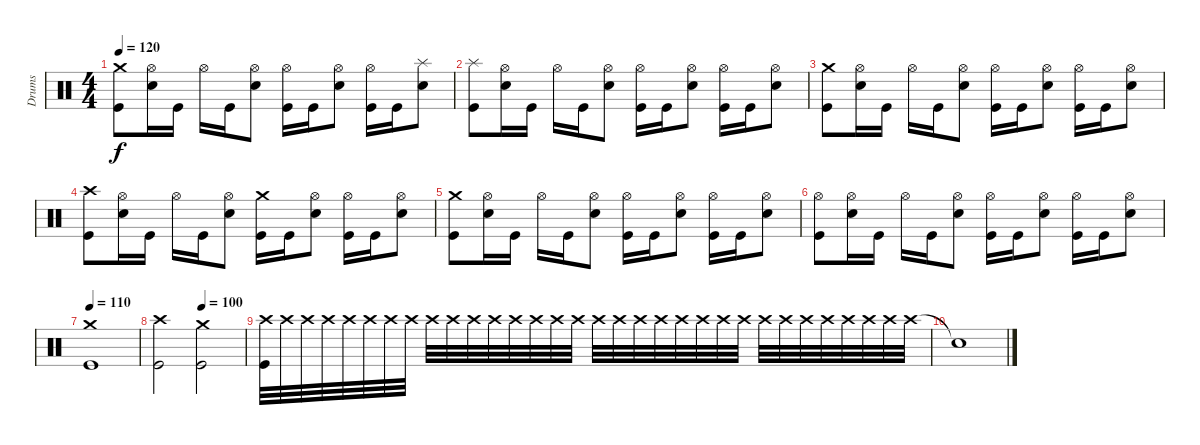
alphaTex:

\track ("Drums" "Drums") {instrument percussion}
\staff {score}
\articulation defaults
\ts (4 4)
\tempo 120
\clef neutral
\ks c
("Crash medium (hit)" "Kick (hit)").8{dy f} ("Hi-Hat (open)" "Snare (hit) 2").16 "Kick (hit)".16 "Hi-Hat (open)".16 "Kick (hit)".16 ("Hi-Hat (open)" "Snare (hit) 2").8 ("Hi-Hat (open)" "Kick (hit)").16 "Kick (hit)".16 ("Hi-Hat (open)" "Snare (hit) 2").8 ("Hi-Hat (open)" "Kick (hit)").16 "Kick (hit)".16 ("Splash (hit)" "Snare (hit) 2").8 |
("Splash (hit)" "Kick (hit)").8 ("Hi-Hat (open)" "Snare (hit) 2").16 "Kick (hit)".16 "Hi-Hat (open)".16 "Kick (hit)".16 ("Hi-Hat (open)" "Snare (hit) 2").8 ("Hi-Hat (open)" "Kick (hit)").16 "Kick (hit)".16 ("Hi-Hat (open)" "Snare (hit) 2").8 ("Hi-Hat (open)" "Kick (hit)").16 "Kick (hit)".16 ("Hi-Hat (open)" "Snare (hit) 2").8 |
("Crash medium (hit)" "Kick (hit)").8 ("Hi-Hat (open)" "Snare (hit) 2").16 "Kick (hit)".16 "Hi-Hat (open)".16 "Kick (hit)".16 ("Hi-Hat (open)" "Snare (hit) 2").8 ("Hi-Hat (open)" "Kick (hit)").16 "Kick (hit)".16 ("Hi-Hat (open)" "Snare (hit) 2").8 ("Hi-Hat (open)" "Kick (hit)").16 "Kick (hit)".16 ("Hi-Hat (open)" "Snare (hit) 2").8 |
("Crash high (hit)" "Kick (hit)").8 ("Hi-Hat (open)" "Snare (hit) 2").16 "Kick (hit)".16 "Hi-Hat (open)".16 "Kick (hit)".16 ("Hi-Hat (open)" "Snare (hit) 2").8 ("Crash medium (hit)" "Kick (hit)").16 "Kick (hit)".16 ("Hi-Hat (open)" "Snare (hit) 2").8 ("Hi-Hat (open)" "Kick (hit)").16 "Kick (hit)".16 ("Hi-Hat (open)" "Snare (hit) 2").8 |
("Crash medium (hit)" "Kick (hit)").8 ("Hi-Hat (open)" "Snare (hit) 2").16 "Kick (hit)".16 "Hi-Hat (open)".16 "Kick (hit)".16 ("Hi-Hat (open)" "Snare (hit) 2").8 ("Hi-Hat (open)" "Kick (hit)").16 "Kick (hit)".16 ("Hi-Hat (open)" "Snare (hit) 2").8 ("Hi-Hat (open)" "Kick (hit)").16 "Kick (hit)".16 ("Hi-Hat (open)" "Snare (hit) 2").8 |
("Hi-Hat (open)" "Kick (hit)").8 ("Hi-Hat (open)" "Snare (hit) 2").16 "Kick (hit)".16 "Hi-Hat (open)".16 "Kick (hit)".16 ("Hi-Hat (open)" "Snare (hit) 2").8 ("Hi-Hat (open)" "Kick (hit)").16 "Kick (hit)".16 ("Hi-Hat (open)" "Snare (hit) 2").8 ("Hi-Hat (open)" "Kick (hit)").16 "Kick (hit)".16 ("Hi-Hat (open)" "Snare (hit) 2").8 |
\tempo 110
("Crash medium (hit)" "Kick (hit)").1 |
\tempo (100 0.5)
("Crash high (hit)" "Kick (hit)").2 ("Crash medium (hit)" "Kick (hit)").2 |
("Crash high (hit)" "Kick (hit)").32 "Crash high (hit)".32 "Crash high (hit)".32 "Crash high (hit)".32 "Crash high (hit)".32 "Crash high (hit)".32 "Crash high (hit)".32 "Crash high (hit)".32 "Crash high (hit)".32 "Crash high (hit)".32 "Crash high (hit)".32 "Crash high (hit)".32 "Crash high (hit)".32 "Crash high (hit)".32 "Crash high (hit)".32 "Crash high (hit)".32 "Crash high (hit)".32 "Crash high (hit)".32 "Crash high (hit)".32 "Crash high (hit)".32 "Crash high (hit)".32 "Crash high (hit)".32 "Crash high (hit)".32 "Crash high (hit)".32 "Crash high (hit)".32 "Crash high (hit)".32 "Crash high (hit)".32 "Crash high (hit)".32 "Crash high (hit)".32 "Crash high (hit)".32 "Crash high (hit)".32 "Crash high (hit)".32 |
"Snare (hit)"{t}.1
